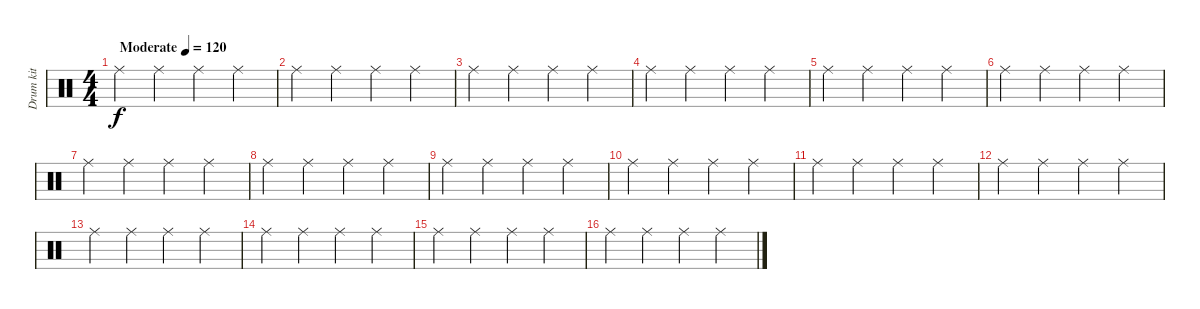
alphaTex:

\track ("Drum kit" "Drum kit") {instrument percussion}
\staff {score}
\articulation defaults
\ts (4 4)
\tempo (120 "Moderate")
\clef neutral
\ks c "Ride (middle)".4{dy f} "Ride (middle)".4 "Ride (middle)".4 "Ride (middle)".4
|
"Ride (middle)".4 "Ride (middle)".4 "Ride (middle)".4 "Ride (middle)".4 |
"Ride (middle)".4 "Ride (middle)".4 "Ride (middle)".4 "Ride (middle)".4 |
"Ride (middle)".4 "Ride (middle)".4 "Ride (middle)".4 "Ride (middle)".4 |
"Ride (middle)".4 "Ride (middle)".4 "Ride (middle)".4 "Ride (middle)".4 |
"Ride (middle)".4 "Ride (middle)".4 "Ride (middle)".4 "Ride (middle)".4 |
"Ride (middle)".4 "Ride (middle)".4 "Ride (middle)".4 "Ride (middle)".4 |
"Ride (middle)".4 "Ride (middle)".4 "Ride (middle)".4 "Ride (middle)".4 |
"Ride (middle)".4 "Ride (middle)".4 "Ride (middle)".4 "Ride (middle)".4 |
"Ride (middle)".4 "Ride (middle)".4 "Ride (middle)".4 "Ride (middle)".4 |
"Ride (middle)".4 "Ride (middle)".4 "Ride (middle)".4 "Ride (middle)".4 |
"Ride (middle)".4 "Ride (middle)".4 "Ride (middle)".4 "Ride (middle)".4 |
"Ride (middle)".4 "Ride (middle)".4 "Ride (middle)".4 "Ride (middle)".4 |
"Ride (middle)".4 "Ride (middle)".4 "Ride (middle)".4 "Ride (middle)".4 |
"Ride (middle)".4 "Ride (middle)".4 "Ride (middle)".4 "Ride (middle)".4 |
"Ride (middle)".4 "Ride (middle)".4 "Ride (middle)".4 "Ride (middle)".4
